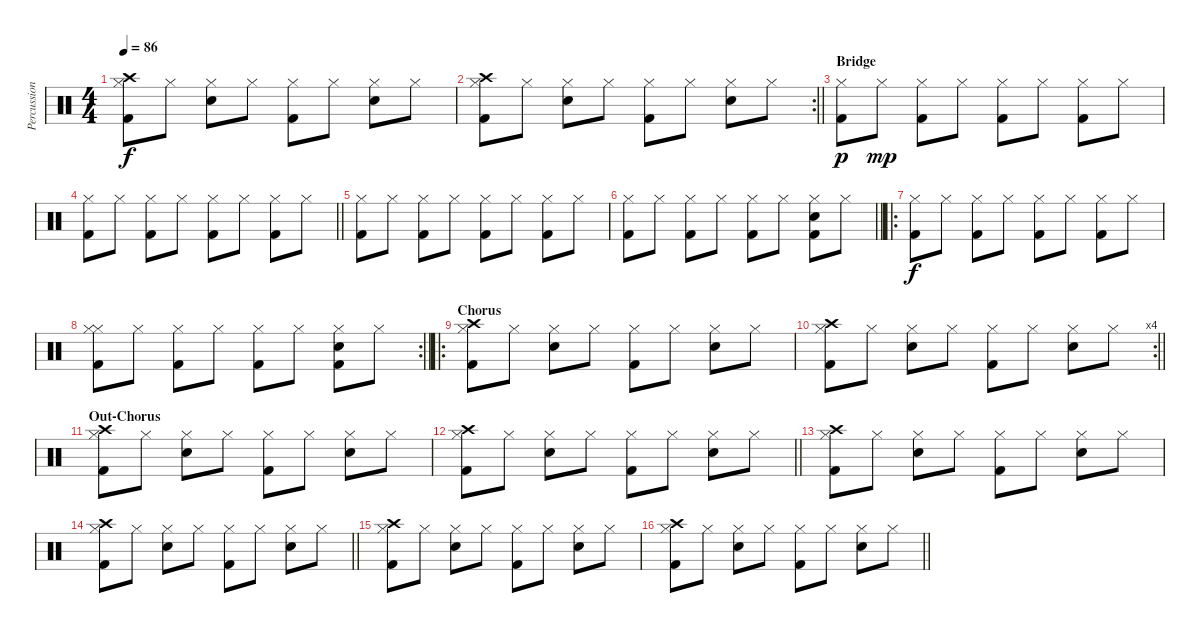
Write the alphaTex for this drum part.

\track ("Percussion" "Percussion") {instrument percussion}
\staff {score}
\articulation defaults
\ts (4 4)
\tempo 86
\clef neutral
\ks c
("Crash high (hit)" "Hi-Hat (closed)" "Kick (hit) 2").8{dy f} "Hi-Hat (closed)".8 ("Snare (hit) 2" "Hi-Hat (closed)").8 "Hi-Hat (closed)".8 ("Hi-Hat (closed)" "Kick (hit) 2").8 "Hi-Hat (closed)".8 ("Hi-Hat (closed)" "Snare (hit) 2").8 "Hi-Hat (closed)".8 |
\rc 2
\barLineRight lightlight
("Hi-Hat (closed)" "Crash high (hit)" "Kick (hit) 2").8 "Hi-Hat (closed)".8 ("Snare (hit) 2" "Hi-Hat (closed)").8 "Hi-Hat (closed)".8 ("Hi-Hat (closed)" "Kick (hit) 2").8 "Hi-Hat (closed)".8 ("Hi-Hat (closed)" "Snare (hit) 2").8 "Hi-Hat (closed)".8 |
\section ("" "Bridge")
("Kick (hit) 2" "Hi-Hat (closed)").8{dy p} "Hi-Hat (closed)".8{dy mp} ("Kick (hit) 2" "Hi-Hat (closed)").8 "Hi-Hat (closed)".8 ("Hi-Hat (closed)" "Kick (hit) 2").8 "Hi-Hat (closed)".8 ("Hi-Hat (closed)" "Kick (hit) 2").8 "Hi-Hat (closed)".8 |
\barLineRight lightlight
("Kick (hit) 2" "Hi-Hat (closed)").8 "Hi-Hat (closed)".8 ("Kick (hit) 2" "Hi-Hat (closed)").8 "Hi-Hat (closed)".8 ("Hi-Hat (closed)" "Kick (hit) 2").8 "Hi-Hat (closed)".8 ("Hi-Hat (closed)" "Kick (hit) 2").8 "Hi-Hat (closed)".8 |
("Kick (hit) 2" "Hi-Hat (closed)").8 "Hi-Hat (closed)".8 ("Kick (hit) 2" "Hi-Hat (closed)").8 "Hi-Hat (closed)".8 ("Hi-Hat (closed)" "Kick (hit) 2").8 "Hi-Hat (closed)".8 ("Hi-Hat (closed)" "Kick (hit) 2").8 "Hi-Hat (closed)".8 |
\barLineRight lightlight
("Kick (hit) 2" "Hi-Hat (closed)").8 "Hi-Hat (closed)".8 ("Kick (hit) 2" "Hi-Hat (closed)").8 "Hi-Hat (closed)".8 ("Hi-Hat (closed)" "Kick (hit) 2").8 "Hi-Hat (closed)".8 ("Hi-Hat (closed)" "Kick (hit) 2" "Snare (hit) 2").8 "Hi-Hat (closed)".8 |
\ro
("Kick (hit) 2" "Hi-Hat (closed)").8{dy f} "Hi-Hat (closed)".8 ("Kick (hit) 2" "Hi-Hat (closed)").8 "Hi-Hat (closed)".8 ("Hi-Hat (closed)" "Kick (hit) 2").8 "Hi-Hat (closed)".8 ("Hi-Hat (closed)" "Kick (hit) 2").8 "Hi-Hat (closed)".8 |
\rc 2
\barLineRight lightlight
("Kick (hit) 2" "Hi-Hat (closed)" "Hi-Hat (closed)").8 "Hi-Hat (closed)".8 ("Kick (hit) 2" "Hi-Hat (closed)").8 "Hi-Hat (closed)".8 ("Hi-Hat (closed)" "Kick (hit) 2").8 "Hi-Hat (closed)".8 ("Hi-Hat (closed)" "Kick (hit) 2" "Snare (hit) 2").8 "Hi-Hat (closed)".8 |
\ro
\section ("" "Chorus")
("Crash high (hit)" "Hi-Hat (closed)" "Kick (hit) 2").8 "Hi-Hat (closed)".8 ("Snare (hit) 2" "Hi-Hat (closed)").8 "Hi-Hat (closed)".8 ("Hi-Hat (closed)" "Kick (hit) 2").8 "Hi-Hat (closed)".8 ("Hi-Hat (closed)" "Snare (hit) 2").8 "Hi-Hat (closed)".8 |
\rc 4
\barLineRight lightlight
("Hi-Hat (closed)" "Crash high (hit)" "Kick (hit) 2").8 "Hi-Hat (closed)".8 ("Snare (hit) 2" "Hi-Hat (closed)").8 "Hi-Hat (closed)".8 ("Hi-Hat (closed)" "Kick (hit) 2").8 "Hi-Hat (closed)".8 ("Hi-Hat (closed)" "Snare (hit) 2").8 "Hi-Hat (closed)".8 |
\section ("" "Out-Chorus")
("Crash high (hit)" "Hi-Hat (closed)" "Kick (hit) 2").8 "Hi-Hat (closed)".8 ("Snare (hit) 2" "Hi-Hat (closed)").8 "Hi-Hat (closed)".8 ("Hi-Hat (closed)" "Kick (hit) 2").8 "Hi-Hat (closed)".8 ("Hi-Hat (closed)" "Snare (hit) 2").8 "Hi-Hat (closed)".8 |
\barLineRight lightlight
("Hi-Hat (closed)" "Crash high (hit)" "Kick (hit) 2").8 "Hi-Hat (closed)".8 ("Snare (hit) 2" "Hi-Hat (closed)").8 "Hi-Hat (closed)".8 ("Hi-Hat (closed)" "Kick (hit) 2").8 "Hi-Hat (closed)".8 ("Hi-Hat (closed)" "Snare (hit) 2").8 "Hi-Hat (closed)".8 |
("Crash high (hit)" "Hi-Hat (closed)" "Kick (hit) 2").8 "Hi-Hat (closed)".8 ("Snare (hit) 2" "Hi-Hat (closed)").8 "Hi-Hat (closed)".8 ("Hi-Hat (closed)" "Kick (hit) 2").8 "Hi-Hat (closed)".8 ("Hi-Hat (closed)" "Snare (hit) 2").8 "Hi-Hat (closed)".8 |
\barLineRight lightlight
("Hi-Hat (closed)" "Crash high (hit)" "Kick (hit) 2").8 "Hi-Hat (closed)".8 ("Snare (hit) 2" "Hi-Hat (closed)").8 "Hi-Hat (closed)".8 ("Hi-Hat (closed)" "Kick (hit) 2").8 "Hi-Hat (closed)".8 ("Hi-Hat (closed)" "Snare (hit) 2").8 "Hi-Hat (closed)".8 |
("Crash high (hit)" "Hi-Hat (closed)" "Kick (hit) 2").8 "Hi-Hat (closed)".8 ("Snare (hit) 2" "Hi-Hat (closed)").8 "Hi-Hat (closed)".8 ("Hi-Hat (closed)" "Kick (hit) 2").8 "Hi-Hat (closed)".8 ("Hi-Hat (closed)" "Snare (hit) 2").8 "Hi-Hat (closed)".8 |
\barLineRight lightlight
("Hi-Hat (closed)" "Crash high (hit)" "Kick (hit) 2").8 "Hi-Hat (closed)".8 ("Snare (hit) 2" "Hi-Hat (closed)").8 "Hi-Hat (closed)".8 ("Hi-Hat (closed)" "Kick (hit) 2").8 "Hi-Hat (closed)".8 ("Hi-Hat (closed)" "Snare (hit) 2").8 "Hi-Hat (closed)".8
